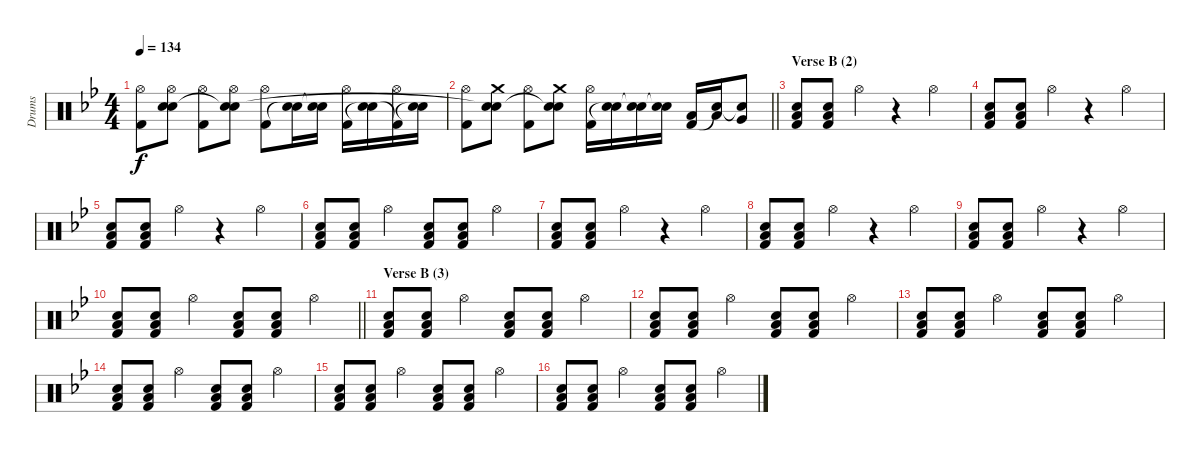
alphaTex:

\track ("Drums" "Drums") {instrument percussion}
\staff {score}
\articulation defaults
\ts (4 4)
\tempo 134
\clef neutral
\ks gminor
("Hi-Hat (open)" "Kick (hit) 2").8{dy f} ("Hi-Hat (open)" "Electric Snare (hit)" "Snare (hit)"{t}).8 ("Hi-Hat (open)" "Kick (hit) 2").8 ("Hi-Hat (open)" "Electric Snare (hit)" "Snare (hit)"{t}).8 ("Hi-Hat (open)" "Kick (hit) 2").8 ("Electric Snare (hit)" "Snare (hit)"{t}).16 ("Electric Snare (hit)" "Snare (hit)"{t}).16 ("Hi-Hat (open)" "Kick (hit) 2").16 ("Electric Snare (hit)" "Snare (hit)"{t}).16 ("Hi-Hat (open)" "Kick (hit) 2"{t}).16 ("Electric Snare (hit)" "Snare (hit)"{t}).16 |
\barLineRight lightlight
("Hi-Hat (open)" "Kick (hit) 2").8 ("Crash medium (hit)" "Electric Snare (hit)" "Snare (hit)"{t}).8 ("Hi-Hat (open)" "Kick (hit) 2").8 ("Crash medium (hit)" "Electric Snare (hit)" "Snare (hit)"{t}).8 ("Hi-Hat (open)" "Kick (hit) 2").16 ("Electric Snare (hit)" "Snare (hit)"{t}).16 ("Electric Snare (hit)" "Snare (hit)"{t}).16 ("Electric Snare (hit)" "Snare (hit)"{t}).16 ("Low Tom (hit)" "Kick (hit) 2").16 ("Low Tom (hit)" "Snare (hit)"{t}).16 ("Very Low Tom (hit)" "Snare (hit)"{t}).8 |
\section ("" "Verse B (2)")
("Electric Snare (hit)" "Low Floor Tom (hit)" "Kick (hit) 2").8 ("Electric Snare (hit)" "Low Floor Tom (hit)" "Kick (hit) 2").8 "Hi-Hat (open)".4 r.4 "Hi-Hat (open)".4 |
("Electric Snare (hit)" "Low Floor Tom (hit)" "Kick (hit) 2").8 ("Electric Snare (hit)" "Low Floor Tom (hit)" "Kick (hit) 2").8 "Hi-Hat (open)".4 r.4 "Hi-Hat (open)".4 |
("Electric Snare (hit)" "Low Floor Tom (hit)" "Kick (hit) 2").8 ("Electric Snare (hit)" "Low Floor Tom (hit)" "Kick (hit) 2").8 "Hi-Hat (open)".4 r.4 "Hi-Hat (open)".4 |
("Electric Snare (hit)" "Low Floor Tom (hit)" "Kick (hit) 2").8 ("Electric Snare (hit)" "Low Floor Tom (hit)" "Kick (hit) 2").8 "Hi-Hat (open)".4 ("Electric Snare (hit)" "Low Floor Tom (hit)" "Kick (hit) 2").8 ("Electric Snare (hit)" "Low Floor Tom (hit)" "Kick (hit) 2").8 "Hi-Hat (open)".4 |
("Electric Snare (hit)" "Low Floor Tom (hit)" "Kick (hit) 2").8 ("Electric Snare (hit)" "Low Floor Tom (hit)" "Kick (hit) 2").8 "Hi-Hat (open)".4 r.4 "Hi-Hat (open)".4 |
("Electric Snare (hit)" "Low Floor Tom (hit)" "Kick (hit) 2").8 ("Electric Snare (hit)" "Low Floor Tom (hit)" "Kick (hit) 2").8 "Hi-Hat (open)".4 r.4 "Hi-Hat (open)".4 |
("Electric Snare (hit)" "Low Floor Tom (hit)" "Kick (hit) 2").8 ("Electric Snare (hit)" "Low Floor Tom (hit)" "Kick (hit) 2").8 "Hi-Hat (open)".4 r.4 "Hi-Hat (open)".4 |
\barLineRight lightlight
("Electric Snare (hit)" "Low Floor Tom (hit)" "Kick (hit) 2").8 ("Electric Snare (hit)" "Low Floor Tom (hit)" "Kick (hit) 2").8 "Hi-Hat (open)".4 ("Electric Snare (hit)" "Low Floor Tom (hit)" "Kick (hit) 2").8 ("Electric Snare (hit)" "Low Floor Tom (hit)" "Kick (hit) 2").8 "Hi-Hat (open)".4 |
\section ("" "Verse B (3)")
("Electric Snare (hit)" "Low Floor Tom (hit)" "Kick (hit) 2").8 ("Electric Snare (hit)" "Low Floor Tom (hit)" "Kick (hit) 2").8 "Hi-Hat (open)".4 ("Electric Snare (hit)" "Low Floor Tom (hit)" "Kick (hit) 2").8 ("Electric Snare (hit)" "Low Floor Tom (hit)" "Kick (hit) 2").8 "Hi-Hat (open)".4 |
("Electric Snare (hit)" "Low Floor Tom (hit)" "Kick (hit) 2").8 ("Electric Snare (hit)" "Low Floor Tom (hit)" "Kick (hit) 2").8 "Hi-Hat (open)".4 ("Electric Snare (hit)" "Low Floor Tom (hit)" "Kick (hit) 2").8 ("Electric Snare (hit)" "Low Floor Tom (hit)" "Kick (hit) 2").8 "Hi-Hat (open)".4 |
("Electric Snare (hit)" "Low Floor Tom (hit)" "Kick (hit) 2").8 ("Electric Snare (hit)" "Low Floor Tom (hit)" "Kick (hit) 2").8 "Hi-Hat (open)".4 ("Electric Snare (hit)" "Low Floor Tom (hit)" "Kick (hit) 2").8 ("Electric Snare (hit)" "Low Floor Tom (hit)" "Kick (hit) 2").8 "Hi-Hat (open)".4 |
("Electric Snare (hit)" "Low Floor Tom (hit)" "Kick (hit) 2").8 ("Electric Snare (hit)" "Low Floor Tom (hit)" "Kick (hit) 2").8 "Hi-Hat (open)".4 ("Electric Snare (hit)" "Low Floor Tom (hit)" "Kick (hit) 2").8 ("Electric Snare (hit)" "Low Floor Tom (hit)" "Kick (hit) 2").8 "Hi-Hat (open)".4 |
("Electric Snare (hit)" "Low Floor Tom (hit)" "Kick (hit) 2").8 ("Electric Snare (hit)" "Low Floor Tom (hit)" "Kick (hit) 2").8 "Hi-Hat (open)".4 ("Electric Snare (hit)" "Low Floor Tom (hit)" "Kick (hit) 2").8 ("Electric Snare (hit)" "Low Floor Tom (hit)" "Kick (hit) 2").8 "Hi-Hat (open)".4 |
("Electric Snare (hit)" "Low Floor Tom (hit)" "Kick (hit) 2").8 ("Electric Snare (hit)" "Low Floor Tom (hit)" "Kick (hit) 2").8 "Hi-Hat (open)".4 ("Electric Snare (hit)" "Low Floor Tom (hit)" "Kick (hit) 2").8 ("Electric Snare (hit)" "Low Floor Tom (hit)" "Kick (hit) 2").8 "Hi-Hat (open)".4
